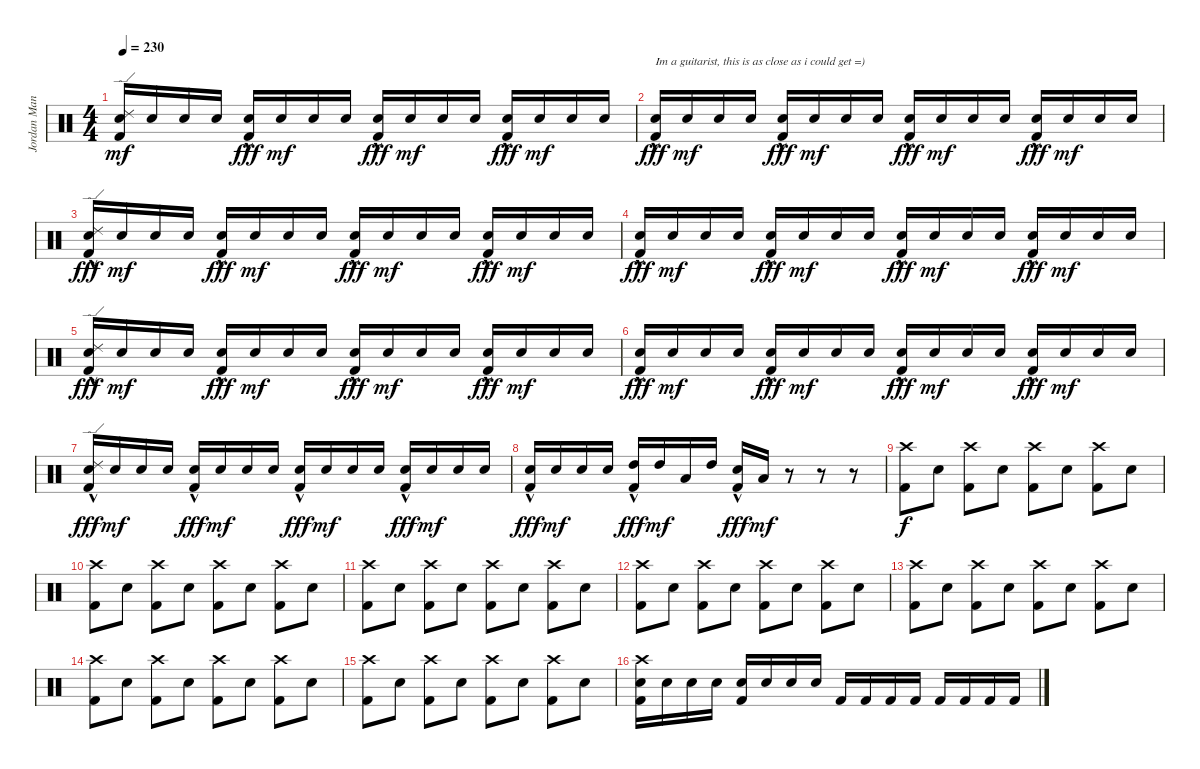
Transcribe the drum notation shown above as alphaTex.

\track ("Jordan Mancino" "Jordan Man") {instrument percussion}
\staff {score}
\articulation defaults
\ts (4 4)
\tempo 230
\clef neutral
\ks c
("Ride (edge) 2" "Electric Snare (hit)" "Kick (hit) 2").16{dy mf} "Electric Snare (hit)".16 "Electric Snare (hit)".16 "Electric Snare (hit)".16 ("Electric Snare (hit)"{hac} "Kick (hit) 2"{hac}).16{dy fff} "Electric Snare (hit)".16{dy mf} "Electric Snare (hit)".16 "Electric Snare (hit)".16 ("Electric Snare (hit)"{hac} "Kick (hit) 2"{hac}).16{dy fff} "Electric Snare (hit)".16{dy mf} "Electric Snare (hit)".16 "Electric Snare (hit)".16 ("Electric Snare (hit)"{hac} "Kick (hit) 2"{hac}).16{dy fff} "Electric Snare (hit)".16{dy mf} "Electric Snare (hit)".16 "Electric Snare (hit)".16 |
("Electric Snare (hit)"{hac} "Kick (hit) 2"{hac}).16{txt "Im a guitarist, this is as close as i could get =)" dy fff} "Electric Snare (hit)".16{dy mf} "Electric Snare (hit)".16 "Electric Snare (hit)".16 ("Electric Snare (hit)"{hac} "Kick (hit) 2"{hac}).16{dy fff} "Electric Snare (hit)".16{dy mf} "Electric Snare (hit)".16 "Electric Snare (hit)".16 ("Electric Snare (hit)"{hac} "Kick (hit) 2"{hac}).16{dy fff} "Electric Snare (hit)".16{dy mf} "Electric Snare (hit)".16 "Electric Snare (hit)".16 ("Electric Snare (hit)"{hac} "Kick (hit) 2"{hac}).16{dy fff} "Electric Snare (hit)".16{dy mf} "Electric Snare (hit)".16 "Electric Snare (hit)".16 |
("Ride (edge) 2" "Electric Snare (hit)"{hac} "Kick (hit) 2"{hac}).16{dy fff} "Electric Snare (hit)".16{dy mf} "Electric Snare (hit)".16 "Electric Snare (hit)".16 ("Electric Snare (hit)"{hac} "Kick (hit) 2"{hac}).16{dy fff} "Electric Snare (hit)".16{dy mf} "Electric Snare (hit)".16 "Electric Snare (hit)".16 ("Electric Snare (hit)"{hac} "Kick (hit) 2"{hac}).16{dy fff} "Electric Snare (hit)".16{dy mf} "Electric Snare (hit)".16 "Electric Snare (hit)".16 ("Electric Snare (hit)"{hac} "Kick (hit) 2"{hac}).16{dy fff} "Electric Snare (hit)".16{dy mf} "Electric Snare (hit)".16 "Electric Snare (hit)".16 |
("Electric Snare (hit)"{hac} "Kick (hit) 2"{hac}).16{dy fff} "Electric Snare (hit)".16{dy mf} "Electric Snare (hit)".16 "Electric Snare (hit)".16 ("Electric Snare (hit)"{hac} "Kick (hit) 2"{hac}).16{dy fff} "Electric Snare (hit)".16{dy mf} "Electric Snare (hit)".16 "Electric Snare (hit)".16 ("Electric Snare (hit)"{hac} "Kick (hit) 2"{hac}).16{dy fff} "Electric Snare (hit)".16{dy mf} "Electric Snare (hit)".16 "Electric Snare (hit)".16 ("Electric Snare (hit)"{hac} "Kick (hit) 2"{hac}).16{dy fff} "Electric Snare (hit)".16{dy mf} "Electric Snare (hit)".16 "Electric Snare (hit)".16 |
("Ride (edge) 2" "Electric Snare (hit)"{hac} "Kick (hit) 2"{hac}).16{dy fff} "Electric Snare (hit)".16{dy mf} "Electric Snare (hit)".16 "Electric Snare (hit)".16 ("Electric Snare (hit)"{hac} "Kick (hit) 2"{hac}).16{dy fff} "Electric Snare (hit)".16{dy mf} "Electric Snare (hit)".16 "Electric Snare (hit)".16 ("Electric Snare (hit)"{hac} "Kick (hit) 2"{hac}).16{dy fff} "Electric Snare (hit)".16{dy mf} "Electric Snare (hit)".16 "Electric Snare (hit)".16 ("Electric Snare (hit)"{hac} "Kick (hit) 2"{hac}).16{dy fff} "Electric Snare (hit)".16{dy mf} "Electric Snare (hit)".16 "Electric Snare (hit)".16 |
("Electric Snare (hit)"{hac} "Kick (hit) 2"{hac}).16{dy fff} "Electric Snare (hit)".16{dy mf} "Electric Snare (hit)".16 "Electric Snare (hit)".16 ("Electric Snare (hit)"{hac} "Kick (hit) 2"{hac}).16{dy fff} "Electric Snare (hit)".16{dy mf} "Electric Snare (hit)".16 "Electric Snare (hit)".16 ("Electric Snare (hit)"{hac} "Kick (hit) 2"{hac}).16{dy fff} "Electric Snare (hit)".16{dy mf} "Electric Snare (hit)".16 "Electric Snare (hit)".16 ("Electric Snare (hit)"{hac} "Kick (hit) 2"{hac}).16{dy fff} "Electric Snare (hit)".16{dy mf} "Electric Snare (hit)".16 "Electric Snare (hit)".16 |
("Ride (edge) 2" "Electric Snare (hit)"{hac} "Kick (hit) 2"{hac}).16{dy fff} "Electric Snare (hit)".16{dy mf} "Electric Snare (hit)".16 "Electric Snare (hit)".16 ("Electric Snare (hit)"{hac} "Kick (hit) 2"{hac}).16{dy fff} "Electric Snare (hit)".16{dy mf} "Electric Snare (hit)".16 "Electric Snare (hit)".16 ("Electric Snare (hit)"{hac} "Kick (hit) 2"{hac}).16{dy fff} "Electric Snare (hit)".16{dy mf} "Electric Snare (hit)".16 "Electric Snare (hit)".16 ("Electric Snare (hit)"{hac} "Kick (hit) 2"{hac}).16{dy fff} "Electric Snare (hit)".16{dy mf} "Electric Snare (hit)".16 "Electric Snare (hit)".16 |
("Electric Snare (hit)"{hac} "Kick (hit) 2"{hac}).16{dy fff} "Electric Snare (hit)".16{dy mf} "Electric Snare (hit)".16 "Electric Snare (hit)".16 ("High Tom (hit)"{hac} "Kick (hit) 2"{hac}).16{dy fff} "High Tom (hit)".16{dy mf} "Low Tom (hit)".16 "High Tom (hit)".16 ("Electric Snare (hit)"{hac} "Kick (hit) 2"{hac}).16{dy fff} "Low Tom (hit)".16{dy mf} r.8 r.8 r.8 |
("Crash high (hit)" "Kick (hit) 2").8{dy f} "Electric Snare (hit)".8 ("Crash high (hit)" "Kick (hit) 2").8 "Electric Snare (hit)".8 ("Crash high (hit)" "Kick (hit) 2").8 "Electric Snare (hit)".8 ("Crash high (hit)" "Kick (hit) 2").8 "Electric Snare (hit)".8 |
("Crash high (hit)" "Kick (hit) 2").8 "Electric Snare (hit)".8 ("Crash high (hit)" "Kick (hit) 2").8 "Electric Snare (hit)".8 ("Crash high (hit)" "Kick (hit) 2").8 "Electric Snare (hit)".8 ("Crash high (hit)" "Kick (hit) 2").8 "Electric Snare (hit)".8 |
("Crash high (hit)" "Kick (hit) 2").8 "Electric Snare (hit)".8 ("Crash high (hit)" "Kick (hit) 2").8 "Electric Snare (hit)".8 ("Crash high (hit)" "Kick (hit) 2").8 "Electric Snare (hit)".8 ("Crash high (hit)" "Kick (hit) 2").8 "Electric Snare (hit)".8 |
("Crash high (hit)" "Kick (hit) 2").8 "Electric Snare (hit)".8 ("Crash high (hit)" "Kick (hit) 2").8 "Electric Snare (hit)".8 ("Crash high (hit)" "Kick (hit) 2").8 "Electric Snare (hit)".8 ("Crash high (hit)" "Kick (hit) 2").8 "Electric Snare (hit)".8 |
("Crash high (hit)" "Kick (hit) 2").8 "Electric Snare (hit)".8 ("Crash high (hit)" "Kick (hit) 2").8 "Electric Snare (hit)".8 ("Crash high (hit)" "Kick (hit) 2").8 "Electric Snare (hit)".8 ("Crash high (hit)" "Kick (hit) 2").8 "Electric Snare (hit)".8 |
("Crash high (hit)" "Kick (hit) 2").8 "Electric Snare (hit)".8 ("Crash high (hit)" "Kick (hit) 2").8 "Electric Snare (hit)".8 ("Crash high (hit)" "Kick (hit) 2").8 "Electric Snare (hit)".8 ("Crash high (hit)" "Kick (hit) 2").8 "Electric Snare (hit)".8 |
("Crash high (hit)" "Kick (hit) 2").8 "Electric Snare (hit)".8 ("Crash high (hit)" "Kick (hit) 2").8 "Electric Snare (hit)".8 ("Crash high (hit)" "Kick (hit) 2").8 "Electric Snare (hit)".8 ("Crash high (hit)" "Kick (hit) 2").8 "Electric Snare (hit)".8 |
("Crash high (hit)" "Electric Snare (hit)" "Kick (hit) 2").16 "Electric Snare (hit)".16 "Electric Snare (hit)".16 "Electric Snare (hit)".16 ("Electric Snare (hit)" "Kick (hit) 2").16 "Electric Snare (hit)".16 "Electric Snare (hit)".16 "Electric Snare (hit)".16 "Kick (hit) 2".16 "Kick (hit) 2".16 "Kick (hit) 2".16 "Kick (hit) 2".16 "Kick (hit) 2".16 "Kick (hit) 2".16 "Kick (hit) 2".16 "Kick (hit) 2".16
